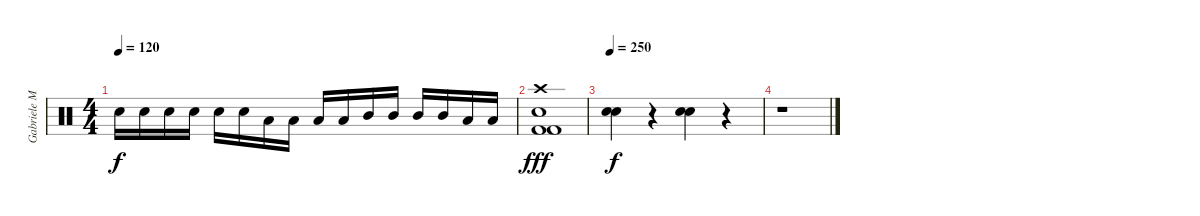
\track ("Gabriele Malatesta" "Gabriele M") {instrument percussion}
\staff {score}
\articulation defaults
\ts (4 4)
\tempo 120
\clef neutral
\ks c "Electric Snare (hit)".16{dy f} "Electric Snare (hit)".16 "Electric Snare (hit)".16 "Electric Snare (hit)".16 "Electric Snare (hit)".16 "Electric Snare (hit)".16 "Low Tom (hit)".16 "Low Tom (hit)".16 "Low Tom (hit)".16 "Low Tom (hit)".16 "Mid Tom (hit)".16 "Mid Tom (hit)".16 "Mid Tom (hit)".16 "Mid Tom (hit)".16 "Low Floor Tom (hit)".16 "Low Floor Tom (hit)".16
|
("Crash high (hit)" "Electric Snare (hit)" "Kick (hit) 2" "Kick (hit) 2").1{dy fff} |
\tempo 250
("Electric Snare (hit)" "Electric Snare (hit)").4{dy f} r.4 ("Electric Snare (hit)" "Electric Snare (hit)").4 r.4 |
r.1
